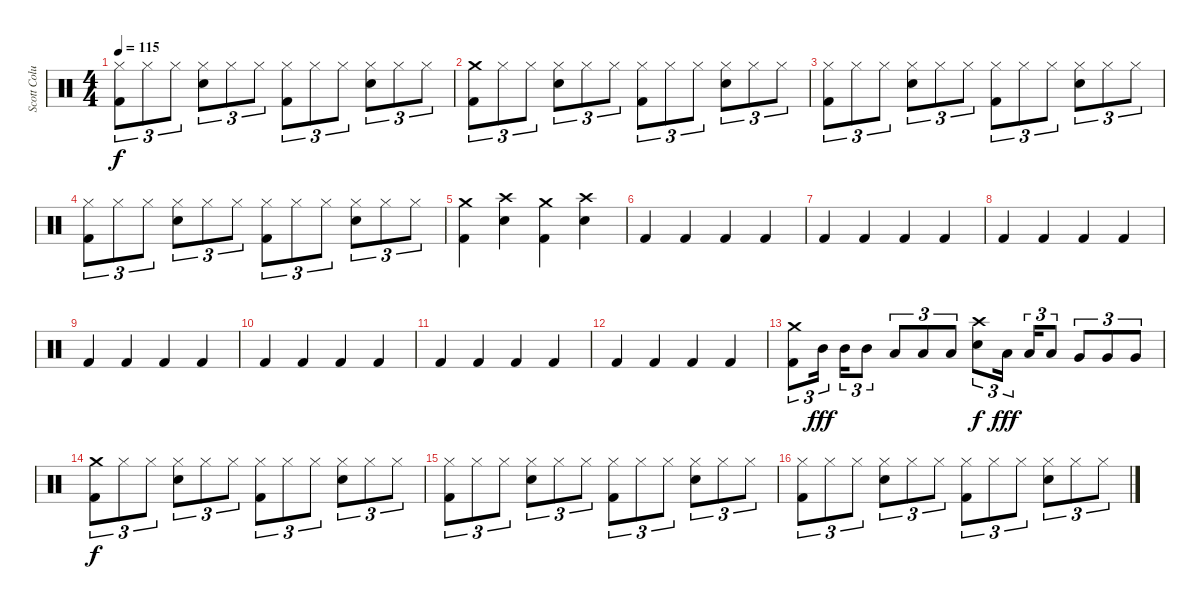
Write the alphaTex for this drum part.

\track ("Scott Columus(Drums)" "Scott Colu") {instrument percussion}
\staff {score}
\articulation defaults
\ts (4 4)
\tempo 115
\clef neutral
\ks c
("Hi-Hat (closed)" "Kick (hit) 2").8{tu (3 2) dy f} "Hi-Hat (closed)".8{tu (3 2)} "Hi-Hat (closed)".8{tu (3 2)} ("Hi-Hat (closed)" "Snare (hit) 2").8{tu (3 2)} "Hi-Hat (closed)".8{tu (3 2)} "Hi-Hat (closed)".8{tu (3 2)} ("Hi-Hat (closed)" "Kick (hit) 2").8{tu (3 2)} "Hi-Hat (closed)".8{tu (3 2)} "Hi-Hat (closed)".8{tu (3 2)} ("Hi-Hat (closed)" "Snare (hit) 2").8{tu (3 2)} "Hi-Hat (closed)".8{tu (3 2)} "Hi-Hat (closed)".8{tu (3 2)} |
("Crash medium (hit)" "Kick (hit) 2").8{tu (3 2)} "Hi-Hat (closed)".8{tu (3 2)} "Hi-Hat (closed)".8{tu (3 2)} ("Hi-Hat (closed)" "Snare (hit) 2").8{tu (3 2)} "Hi-Hat (closed)".8{tu (3 2)} "Hi-Hat (closed)".8{tu (3 2)} ("Hi-Hat (closed)" "Kick (hit) 2").8{tu (3 2)} "Hi-Hat (closed)".8{tu (3 2)} "Hi-Hat (closed)".8{tu (3 2)} ("Hi-Hat (closed)" "Snare (hit) 2").8{tu (3 2)} "Hi-Hat (closed)".8{tu (3 2)} "Hi-Hat (closed)".8{tu (3 2)} |
("Hi-Hat (closed)" "Kick (hit) 2").8{tu (3 2)} "Hi-Hat (closed)".8{tu (3 2)} "Hi-Hat (closed)".8{tu (3 2)} ("Hi-Hat (closed)" "Snare (hit) 2").8{tu (3 2)} "Hi-Hat (closed)".8{tu (3 2)} "Hi-Hat (closed)".8{tu (3 2)} ("Hi-Hat (closed)" "Kick (hit) 2").8{tu (3 2)} "Hi-Hat (closed)".8{tu (3 2)} "Hi-Hat (closed)".8{tu (3 2)} ("Hi-Hat (closed)" "Snare (hit) 2").8{tu (3 2)} "Hi-Hat (closed)".8{tu (3 2)} "Hi-Hat (closed)".8{tu (3 2)} |
("Hi-Hat (closed)" "Kick (hit) 2").8{tu (3 2)} "Hi-Hat (closed)".8{tu (3 2)} "Hi-Hat (closed)".8{tu (3 2)} ("Hi-Hat (closed)" "Snare (hit) 2").8{tu (3 2)} "Hi-Hat (closed)".8{tu (3 2)} "Hi-Hat (closed)".8{tu (3 2)} ("Hi-Hat (closed)" "Kick (hit) 2").8{tu (3 2)} "Hi-Hat (closed)".8{tu (3 2)} "Hi-Hat (closed)".8{tu (3 2)} ("Hi-Hat (closed)" "Snare (hit) 2").8{tu (3 2)} "Hi-Hat (closed)".8{tu (3 2)} "Hi-Hat (closed)".8{tu (3 2)} |
("Crash medium (hit)" "Kick (hit) 2").4 ("Crash high (hit)" "Snare (hit) 2").4 ("Crash medium (hit)" "Kick (hit) 2").4 ("Crash high (hit)" "Snare (hit) 2").4 |
"Kick (hit) 2".4 "Kick (hit) 2".4 "Kick (hit) 2".4 "Kick (hit) 2".4 |
"Kick (hit) 2".4 "Kick (hit) 2".4 "Kick (hit) 2".4 "Kick (hit) 2".4 |
"Kick (hit) 2".4 "Kick (hit) 2".4 "Kick (hit) 2".4 "Kick (hit) 2".4 |
"Kick (hit) 2".4 "Kick (hit) 2".4 "Kick (hit) 2".4 "Kick (hit) 2".4 |
"Kick (hit) 2".4 "Kick (hit) 2".4 "Kick (hit) 2".4 "Kick (hit) 2".4 |
"Kick (hit) 2".4 "Kick (hit) 2".4 "Kick (hit) 2".4 "Kick (hit) 2".4 |
"Kick (hit) 2".4 "Kick (hit) 2".4 "Kick (hit) 2".4 "Kick (hit) 2".4 |
("Crash medium (hit)" "Kick (hit) 2").8{tu (3 2)} "Mid Tom (hit)".16{tu (3 2) dy fff} "Mid Tom (hit)".16{tu (3 2)} "Mid Tom (hit)".8{tu (3 2)} "Low Tom (hit)".8{tu (3 2)} "Low Tom (hit)".8{tu (3 2)} "Low Tom (hit)".8{tu (3 2)} ("Crash high (hit)" "Snare (hit) 2").8{tu (3 2) dy f} "Low Tom (hit)".16{tu (3 2) dy fff} "Low Tom (hit)".16{tu (3 2)} "Low Tom (hit)".8{tu (3 2)} "Very Low Tom (hit)".8{tu (3 2)} "Very Low Tom (hit)".8{tu (3 2)} "Very Low Tom (hit)".8{tu (3 2)} |
("Crash medium (hit)" "Kick (hit) 2").8{tu (3 2) dy f} "Hi-Hat (closed)".8{tu (3 2)} "Hi-Hat (closed)".8{tu (3 2)} ("Hi-Hat (closed)" "Snare (hit) 2").8{tu (3 2)} "Hi-Hat (closed)".8{tu (3 2)} "Hi-Hat (closed)".8{tu (3 2)} ("Hi-Hat (closed)" "Kick (hit) 2").8{tu (3 2)} "Hi-Hat (closed)".8{tu (3 2)} "Hi-Hat (closed)".8{tu (3 2)} ("Hi-Hat (closed)" "Snare (hit) 2").8{tu (3 2)} "Hi-Hat (closed)".8{tu (3 2)} "Hi-Hat (closed)".8{tu (3 2)} |
("Hi-Hat (closed)" "Kick (hit) 2").8{tu (3 2)} "Hi-Hat (closed)".8{tu (3 2)} "Hi-Hat (closed)".8{tu (3 2)} ("Hi-Hat (closed)" "Snare (hit) 2").8{tu (3 2)} "Hi-Hat (closed)".8{tu (3 2)} "Hi-Hat (closed)".8{tu (3 2)} ("Hi-Hat (closed)" "Kick (hit) 2").8{tu (3 2)} "Hi-Hat (closed)".8{tu (3 2)} "Hi-Hat (closed)".8{tu (3 2)} ("Hi-Hat (closed)" "Snare (hit) 2").8{tu (3 2)} "Hi-Hat (closed)".8{tu (3 2)} "Hi-Hat (closed)".8{tu (3 2)} |
("Hi-Hat (closed)" "Kick (hit) 2").8{tu (3 2)} "Hi-Hat (closed)".8{tu (3 2)} "Hi-Hat (closed)".8{tu (3 2)} ("Hi-Hat (closed)" "Snare (hit) 2").8{tu (3 2)} "Hi-Hat (closed)".8{tu (3 2)} "Hi-Hat (closed)".8{tu (3 2)} ("Hi-Hat (closed)" "Kick (hit) 2").8{tu (3 2)} "Hi-Hat (closed)".8{tu (3 2)} "Hi-Hat (closed)".8{tu (3 2)} ("Hi-Hat (closed)" "Snare (hit) 2").8{tu (3 2)} "Hi-Hat (closed)".8{tu (3 2)} "Hi-Hat (closed)".8{tu (3 2)}
